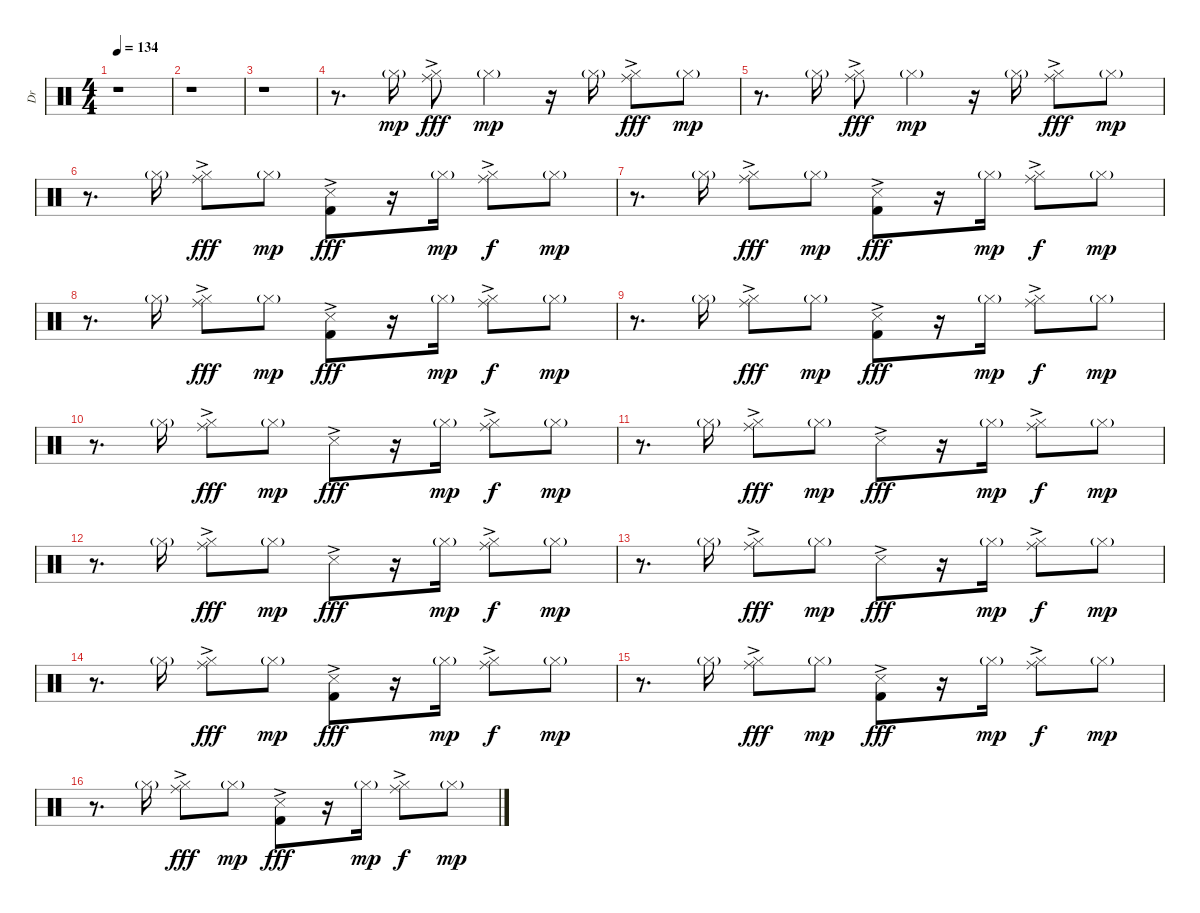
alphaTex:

\track ("Dr" "Dr") {instrument percussion}
\staff {score}
\articulation defaults
\ts (4 4)
\tempo 134
\clef neutral
\ks c
r.1{dy mp} |
r.1 |
r.1 |
r.8{d} "Hi-Hat (closed)"{g}.16 ("Ride (middle)" "Hi-Hat (closed)"{ac}).8{dy fff} "Hi-Hat (closed)"{g}.4{dy mp} r.16 "Hi-Hat (closed)"{g}.16 ("Ride (middle)" "Hi-Hat (closed)"{ac}).8{dy fff} "Hi-Hat (closed)"{g}.8{dy mp} |
r.8{d} "Hi-Hat (closed)"{g}.16 ("Ride (middle)" "Hi-Hat (closed)"{ac}).8{dy fff} "Hi-Hat (closed)"{g}.4{dy mp} r.16 "Hi-Hat (closed)"{g}.16 ("Ride (middle)" "Hi-Hat (closed)"{ac}).8{dy fff} "Hi-Hat (closed)"{g}.8{dy mp} |
r.8{d} "Hi-Hat (closed)"{g}.16 ("Ride (middle)" "Hi-Hat (closed)"{ac}).8{dy fff} "Hi-Hat (closed)"{g}.8{dy mp} ("Snare (side stick) 3"{ac} "Kick (hit) 2").8{dy fff} r.16 "Hi-Hat (closed)"{g}.16{dy mp} ("Ride (middle)" "Hi-Hat (closed)"{ac}).8{dy f} "Hi-Hat (closed)"{g}.8{dy mp} |
r.8{d} "Hi-Hat (closed)"{g}.16 ("Ride (middle)" "Hi-Hat (closed)"{ac}).8{dy fff} "Hi-Hat (closed)"{g}.8{dy mp} ("Snare (side stick) 3"{ac} "Kick (hit) 2").8{dy fff} r.16 "Hi-Hat (closed)"{g}.16{dy mp} ("Ride (middle)" "Hi-Hat (closed)"{ac}).8{dy f} "Hi-Hat (closed)"{g}.8{dy mp} |
r.8{d} "Hi-Hat (closed)"{g}.16 ("Ride (middle)" "Hi-Hat (closed)"{ac}).8{dy fff} "Hi-Hat (closed)"{g}.8{dy mp} ("Snare (side stick) 3"{ac} "Kick (hit) 2").8{dy fff} r.16 "Hi-Hat (closed)"{g}.16{dy mp} ("Ride (middle)" "Hi-Hat (closed)"{ac}).8{dy f} "Hi-Hat (closed)"{g}.8{dy mp} |
r.8{d} "Hi-Hat (closed)"{g}.16 ("Ride (middle)" "Hi-Hat (closed)"{ac}).8{dy fff} "Hi-Hat (closed)"{g}.8{dy mp} ("Snare (side stick) 3"{ac} "Kick (hit) 2").8{dy fff} r.16 "Hi-Hat (closed)"{g}.16{dy mp} ("Ride (middle)" "Hi-Hat (closed)"{ac}).8{dy f} "Hi-Hat (closed)"{g}.8{dy mp} |
r.8{d} "Hi-Hat (closed)"{g}.16 ("Ride (middle)" "Hi-Hat (closed)"{ac}).8{dy fff} "Hi-Hat (closed)"{g}.8{dy mp} "Snare (side stick) 3"{ac}.8{dy fff} r.16 "Hi-Hat (closed)"{g}.16{dy mp} ("Ride (middle)" "Hi-Hat (closed)"{ac}).8{dy f} "Hi-Hat (closed)"{g}.8{dy mp} |
r.8{d} "Hi-Hat (closed)"{g}.16 ("Ride (middle)" "Hi-Hat (closed)"{ac}).8{dy fff} "Hi-Hat (closed)"{g}.8{dy mp} "Snare (side stick) 3"{ac}.8{dy fff} r.16 "Hi-Hat (closed)"{g}.16{dy mp} ("Ride (middle)" "Hi-Hat (closed)"{ac}).8{dy f} "Hi-Hat (closed)"{g}.8{dy mp} |
r.8{d} "Hi-Hat (closed)"{g}.16 ("Ride (middle)" "Hi-Hat (closed)"{ac}).8{dy fff} "Hi-Hat (closed)"{g}.8{dy mp} "Snare (side stick) 3"{ac}.8{dy fff} r.16 "Hi-Hat (closed)"{g}.16{dy mp} ("Ride (middle)" "Hi-Hat (closed)"{ac}).8{dy f} "Hi-Hat (closed)"{g}.8{dy mp} |
r.8{d} "Hi-Hat (closed)"{g}.16 ("Ride (middle)" "Hi-Hat (closed)"{ac}).8{dy fff} "Hi-Hat (closed)"{g}.8{dy mp} "Snare (side stick) 3"{ac}.8{dy fff} r.16 "Hi-Hat (closed)"{g}.16{dy mp} ("Ride (middle)" "Hi-Hat (closed)"{ac}).8{dy f} "Hi-Hat (closed)"{g}.8{dy mp} |
r.8{d} "Hi-Hat (closed)"{g}.16 ("Ride (middle)" "Hi-Hat (closed)"{ac}).8{dy fff} "Hi-Hat (closed)"{g}.8{dy mp} ("Snare (side stick) 3"{ac} "Kick (hit) 2").8{dy fff} r.16 "Hi-Hat (closed)"{g}.16{dy mp} ("Ride (middle)" "Hi-Hat (closed)"{ac}).8{dy f} "Hi-Hat (closed)"{g}.8{dy mp} |
r.8{d} "Hi-Hat (closed)"{g}.16 ("Ride (middle)" "Hi-Hat (closed)"{ac}).8{dy fff} "Hi-Hat (closed)"{g}.8{dy mp} ("Snare (side stick) 3"{ac} "Kick (hit) 2").8{dy fff} r.16 "Hi-Hat (closed)"{g}.16{dy mp} ("Ride (middle)" "Hi-Hat (closed)"{ac}).8{dy f} "Hi-Hat (closed)"{g}.8{dy mp} |
r.8{d} "Hi-Hat (closed)"{g}.16 ("Ride (middle)" "Hi-Hat (closed)"{ac}).8{dy fff} "Hi-Hat (closed)"{g}.8{dy mp} ("Snare (side stick) 3"{ac} "Kick (hit) 2").8{dy fff} r.16 "Hi-Hat (closed)"{g}.16{dy mp} ("Ride (middle)" "Hi-Hat (closed)"{ac}).8{dy f} "Hi-Hat (closed)"{g}.8{dy mp}
